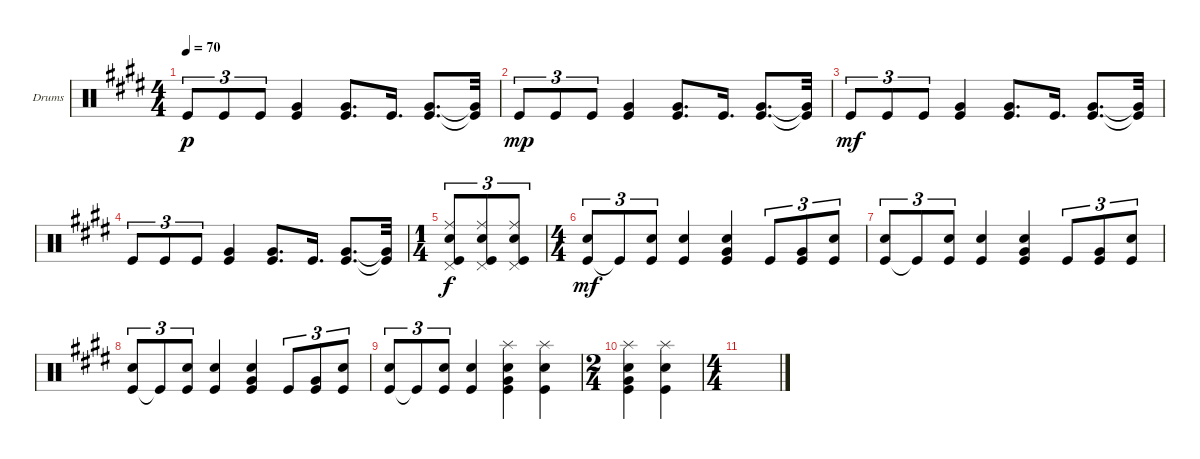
\defaultSystemsLayout 4
\bracketExtendMode groupsimilarinstruments
\firstSystemTrackNameOrientation horizontal
\otherSystemsTrackNameOrientation horizontal
\track ("Drumkit" "Drums") {instrument percussion}
\staff {score}
\articulation defaults
\ts (4 4)
\tempo 70
\clef neutral
\ks c#minor "Kick (hit)".8{tu (3 2) dy p} "Kick (hit)".8{tu (3 2)} "Kick (hit)".8{tu (3 2)}
("Very Low Tom (hit)" "Kick (hit)").4 ("Very Low Tom (hit)" "Kick (hit)").8{d} "Kick (hit)".16{d} ("Very Low Tom (hit)" "Kick (hit)").8{d} ("Very Low Tom (hit)"{t} "Kick (hit)"{t}).32 |
"Kick (hit)".8{tu (3 2) dy mp} "Kick (hit)".8{tu (3 2)} "Kick (hit)".8{tu (3 2)} ("Very Low Tom (hit)" "Kick (hit)").4 ("Very Low Tom (hit)" "Kick (hit)").8{d} "Kick (hit)".16{d} ("Very Low Tom (hit)" "Kick (hit)").8{d} ("Very Low Tom (hit)"{t} "Kick (hit)"{t}).32 |
"Kick (hit)".8{tu (3 2) dy mf} "Kick (hit)".8{tu (3 2)} "Kick (hit)".8{tu (3 2)} ("Very Low Tom (hit)" "Kick (hit)").4 ("Very Low Tom (hit)" "Kick (hit)").8{d} "Kick (hit)".16{d} ("Very Low Tom (hit)" "Kick (hit)").8{d} ("Very Low Tom (hit)"{t} "Kick (hit)"{t}).32 |
"Kick (hit)".8{tu (3 2)} "Kick (hit)".8{tu (3 2)} "Kick (hit)".8{tu (3 2)} ("Very Low Tom (hit)" "Kick (hit)").4 ("Very Low Tom (hit)" "Kick (hit)").8{d} "Kick (hit)".16{d} ("Very Low Tom (hit)" "Kick (hit)").8{d} ("Very Low Tom (hit)"{t} "Kick (hit)"{t}).32 |
\ts (1 4)
("Kick (hit)" "Ride (middle)" "Pedal Hi-Hat (hit)" "Snare (hit) 2").8{tu (3 2) dy f} ("Kick (hit)" "Ride (middle)" "Pedal Hi-Hat (hit)" "Snare (hit) 2").8{tu (3 2)} ("Ride (middle)" "Kick (hit)" "Pedal Hi-Hat (hit)" "Snare (hit) 2").8{tu (3 2)} |
\ts (4 4)
("Kick (hit)" "Snare (hit) 2").8{tu (3 2) dy mf} "Kick (hit)"{t}.8{tu (3 2)} ("Kick (hit)" "Snare (hit) 2").8{tu (3 2)} ("Kick (hit)" "Snare (hit) 2").4 ("Very Low Tom (hit)" "Kick (hit)" "Snare (hit) 2").4 "Kick (hit)".8{tu (3 2)} ("Very Low Tom (hit)" "Kick (hit)").8{tu (3 2)} ("Snare (hit) 2" "Kick (hit)").8{tu (3 2)} |
("Kick (hit)" "Snare (hit) 2").8{tu (3 2)} "Kick (hit)"{t}.8{tu (3 2)} ("Kick (hit)" "Snare (hit) 2").8{tu (3 2)} ("Kick (hit)" "Snare (hit) 2").4 ("Very Low Tom (hit)" "Kick (hit)" "Snare (hit) 2").4 "Kick (hit)".8{tu (3 2)} ("Very Low Tom (hit)" "Kick (hit)").8{tu (3 2)} ("Snare (hit) 2" "Kick (hit)").8{tu (3 2)} |
("Kick (hit)" "Snare (hit) 2").8{tu (3 2)} "Kick (hit)"{t}.8{tu (3 2)} ("Kick (hit)" "Snare (hit) 2").8{tu (3 2)} ("Kick (hit)" "Snare (hit) 2").4 ("Very Low Tom (hit)" "Kick (hit)" "Snare (hit) 2").4 "Kick (hit)".8{tu (3 2)} ("Very Low Tom (hit)" "Kick (hit)").8{tu (3 2)} ("Snare (hit) 2" "Kick (hit)").8{tu (3 2)} |
("Kick (hit)" "Snare (hit) 2").8{tu (3 2)} "Kick (hit)"{t}.8{tu (3 2)} ("Kick (hit)" "Snare (hit) 2").8{tu (3 2)} ("Kick (hit)" "Snare (hit) 2").4 ("Very Low Tom (hit)" "Kick (hit)" "Snare (hit) 2" "Splash (hit)").4 ("Splash (hit)" "Snare (hit) 2" "Kick (hit)").4 |
\ts (2 4)
("Kick (hit)" "Snare (hit) 2" "Splash (hit)" "Very Low Tom (hit)").4 ("Splash (hit)" "Snare (hit) 2" "Kick (hit)").4 |
\ts (4 4)
